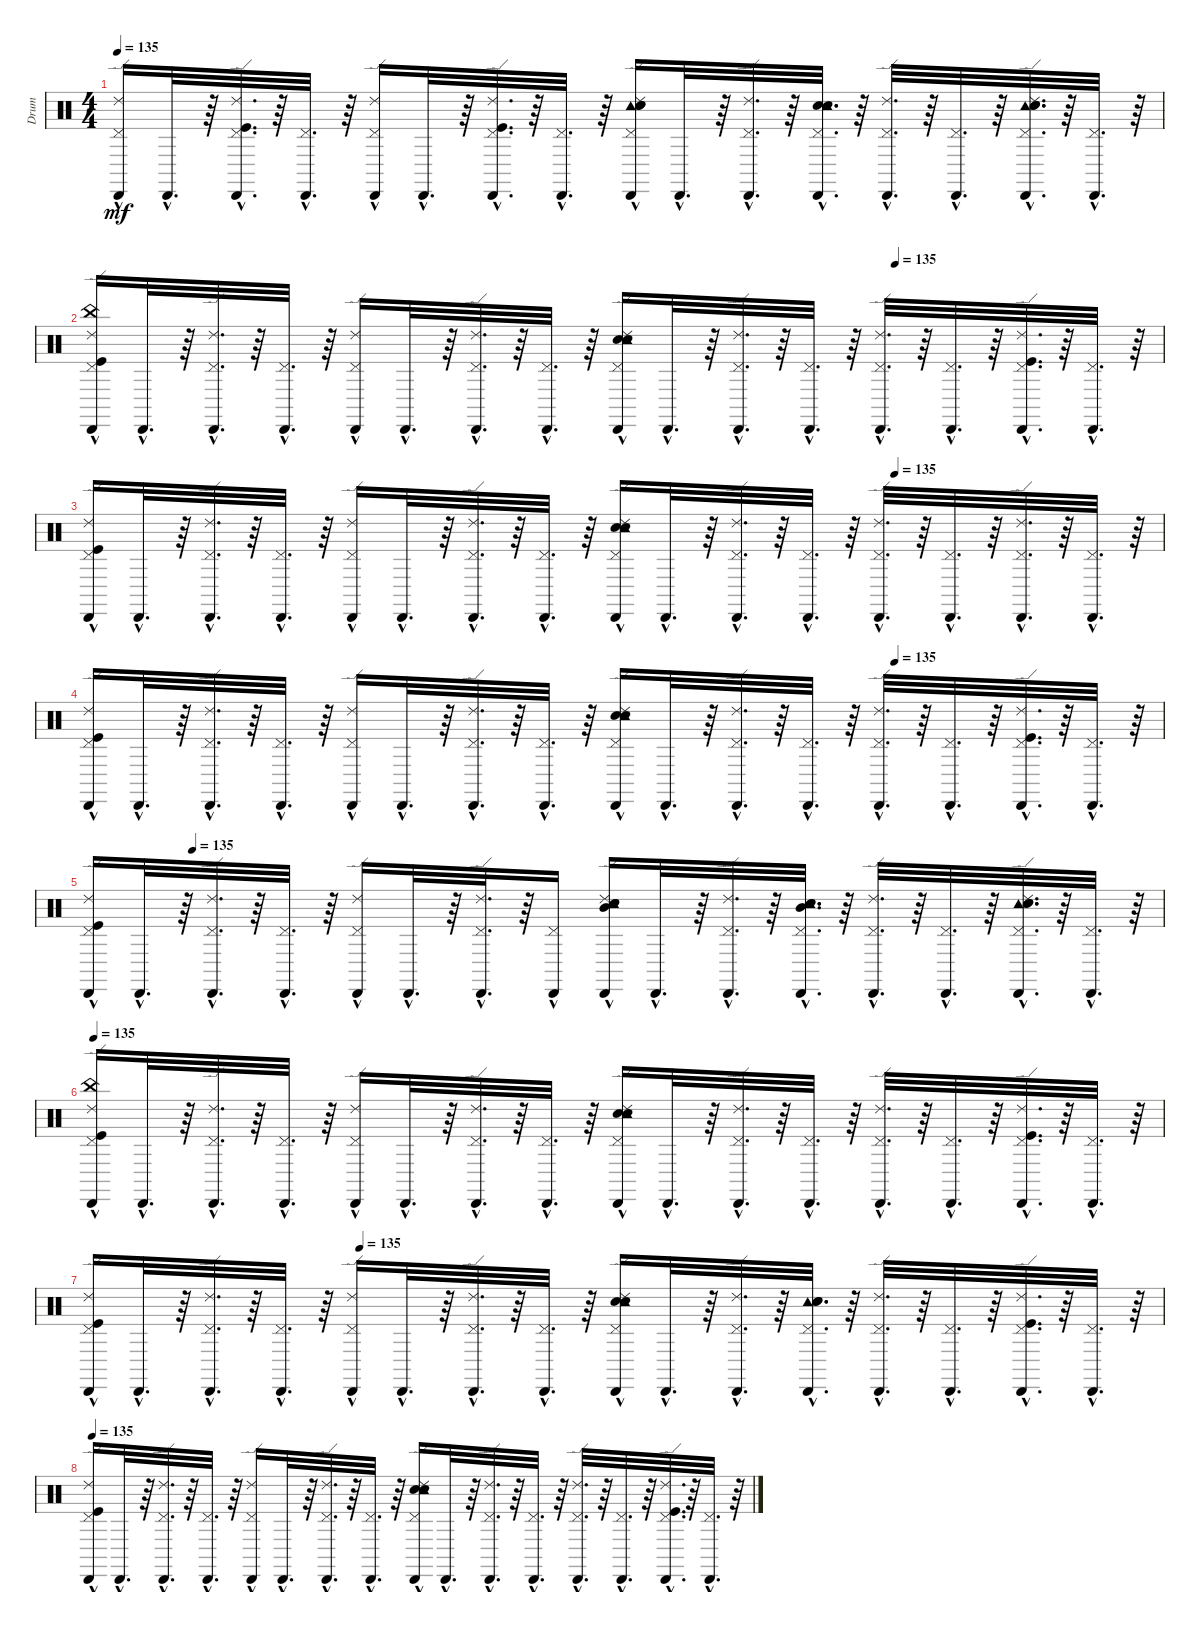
\track ("Drum" "Drum") {instrument percussion}
\staff {score}
\articulation defaults
\ts (4 4)
\tempo 135
\clef neutral
\ks c
("Cabasa (hit)"{hac} "Pedal Hi-Hat (hit)"{hac} "Ride (edge) 2"{hac}).16{dy mf} "Cabasa (hit)"{hac}.32{d} r.64 ("Cabasa (hit)"{hac} "Kick (hit)"{hac} "Ride (edge) 2"{hac} "Pedal Hi-Hat (hit)"{hac}).32{d} r.64 ("Cabasa (hit)"{hac} "Pedal Hi-Hat (hit)"{hac}).32{d} r.64 ("Cabasa (hit)"{hac} "Ride (edge) 2"{hac} "Pedal Hi-Hat (hit)"{hac}).16 "Cabasa (hit)"{hac}.32{d} r.64 ("Cabasa (hit)"{hac} "Kick (hit)"{hac} "Ride (edge) 2"{hac} "Pedal Hi-Hat (hit)"{hac}).32{d} r.64 ("Cabasa (hit)"{hac} "Pedal Hi-Hat (hit)"{hac}).32{d} r.64 ("Cabasa (hit)"{hac} "Tambourine (hit)"{hac} "Ride (edge) 2"{hac} "Snare (hit) 2"{hac} "Electric Snare (hit)"{hac} "Pedal Hi-Hat (hit)"{hac}).16 "Cabasa (hit)"{hac}.32{d} r.64 ("Cabasa (hit)"{hac} "Ride (edge) 2"{hac} "Pedal Hi-Hat (hit)"{hac}).32{d} r.64 ("Cabasa (hit)"{hac} "Pedal Hi-Hat (hit)"{hac} "Snare (hit) 2"{hac} "Electric Snare (hit)"{hac} "Tambourine (hit)"{hac}).32{d} r.64 ("Cabasa (hit)"{hac} "Ride (edge) 2"{hac} "Pedal Hi-Hat (hit)"{hac}).32{d} r.64 ("Cabasa (hit)"{hac} "Pedal Hi-Hat (hit)"{hac}).32{d} r.64 ("Cabasa (hit)"{hac} "Ride (edge) 2"{hac} "Pedal Hi-Hat (hit)"{hac} "Tambourine (hit)"{hac} "Electric Snare (hit)"{hac} "Snare (hit) 2"{hac}).32{d} r.64 ("Cabasa (hit)"{hac} "Pedal Hi-Hat (hit)"{hac}).32{d} r.64 |
\tempo (135 0.75)
("Cabasa (hit)"{hac} "China (hit)"{hac} "Pedal Hi-Hat (hit)"{hac} "Kick (hit)"{hac} "Ride (edge) 2"{hac}).16 "Cabasa (hit)"{hac}.32{d} r.64 ("Cabasa (hit)"{hac} "Pedal Hi-Hat (hit)"{hac} "Ride (edge) 2"{hac}).32{d} r.64 ("Cabasa (hit)"{hac} "Pedal Hi-Hat (hit)"{hac}).32{d} r.64 ("Cabasa (hit)"{hac} "Pedal Hi-Hat (hit)"{hac} "Ride (edge) 2"{hac}).16 "Cabasa (hit)"{hac}.32{d} r.64 ("Cabasa (hit)"{hac} "Pedal Hi-Hat (hit)"{hac} "Ride (edge) 2"{hac}).32{d} r.64 ("Cabasa (hit)"{hac} "Pedal Hi-Hat (hit)"{hac}).32{d} r.64 ("Cabasa (hit)"{hac} "Snare (hit) 2"{hac} "Electric Snare (hit)"{hac} "Pedal Hi-Hat (hit)"{hac} "Ride (edge) 2"{hac} "Tambourine (hit)"{hac}).16 "Cabasa (hit)"{hac}.32{d} r.64 ("Cabasa (hit)"{hac} "Pedal Hi-Hat (hit)"{hac} "Ride (edge) 2"{hac}).32{d} r.64 ("Cabasa (hit)"{hac} "Pedal Hi-Hat (hit)"{hac}).32{d} r.64 ("Cabasa (hit)"{hac} "Pedal Hi-Hat (hit)"{hac} "Ride (edge) 2"{hac}).32{d} r.64 ("Cabasa (hit)"{hac} "Pedal Hi-Hat (hit)"{hac}).32{d} r.64 ("Cabasa (hit)"{hac} "Pedal Hi-Hat (hit)"{hac} "Kick (hit)"{hac} "Ride (edge) 2"{hac}).32{d} r.64 ("Cabasa (hit)"{hac} "Pedal Hi-Hat (hit)"{hac}).32{d} r.64 |
\tempo (135 0.75)
("Cabasa (hit)"{hac} "Pedal Hi-Hat (hit)"{hac} "Kick (hit)"{hac} "Ride (edge) 2"{hac}).16 "Cabasa (hit)"{hac}.32{d} r.64 ("Cabasa (hit)"{hac} "Pedal Hi-Hat (hit)"{hac} "Ride (edge) 2"{hac}).32{d} r.64 ("Cabasa (hit)"{hac} "Pedal Hi-Hat (hit)"{hac}).32{d} r.64 ("Cabasa (hit)"{hac} "Pedal Hi-Hat (hit)"{hac} "Ride (edge) 2"{hac}).16 "Cabasa (hit)"{hac}.32{d} r.64 ("Cabasa (hit)"{hac} "Pedal Hi-Hat (hit)"{hac} "Ride (edge) 2"{hac}).32{d} r.64 ("Cabasa (hit)"{hac} "Pedal Hi-Hat (hit)"{hac}).32{d} r.64 ("Cabasa (hit)"{hac} "Pedal Hi-Hat (hit)"{hac} "Snare (hit) 2"{hac} "Ride (edge) 2"{hac} "Tambourine (hit)"{hac} "Electric Snare (hit)"{hac}).16 "Cabasa (hit)"{hac}.32{d} r.64 ("Cabasa (hit)"{hac} "Pedal Hi-Hat (hit)"{hac} "Ride (edge) 2"{hac}).32{d} r.64 ("Cabasa (hit)"{hac} "Pedal Hi-Hat (hit)"{hac}).32{d} r.64 ("Cabasa (hit)"{hac} "Ride (edge) 2"{hac} "Pedal Hi-Hat (hit)"{hac}).32{d} r.64 ("Cabasa (hit)"{hac} "Pedal Hi-Hat (hit)"{hac}).32{d} r.64 ("Cabasa (hit)"{hac} "Pedal Hi-Hat (hit)"{hac} "Ride (edge) 2"{hac}).32{d} r.64 ("Cabasa (hit)"{hac} "Pedal Hi-Hat (hit)"{hac}).32{d} r.64 |
\tempo (135 0.75)
("Cabasa (hit)"{hac} "Pedal Hi-Hat (hit)"{hac} "Kick (hit)"{hac} "Ride (edge) 2"{hac}).16 "Cabasa (hit)"{hac}.32{d} r.64 ("Cabasa (hit)"{hac} "Pedal Hi-Hat (hit)"{hac} "Ride (edge) 2"{hac}).32{d} r.64 ("Cabasa (hit)"{hac} "Pedal Hi-Hat (hit)"{hac}).32{d} r.64 ("Cabasa (hit)"{hac} "Pedal Hi-Hat (hit)"{hac} "Ride (edge) 2"{hac}).16 "Cabasa (hit)"{hac}.32{d} r.64 ("Cabasa (hit)"{hac} "Pedal Hi-Hat (hit)"{hac} "Ride (edge) 2"{hac}).32{d} r.64 ("Cabasa (hit)"{hac} "Pedal Hi-Hat (hit)"{hac}).32{d} r.64 ("Cabasa (hit)"{hac} "Snare (hit) 2"{hac} "Electric Snare (hit)"{hac} "Pedal Hi-Hat (hit)"{hac} "Ride (edge) 2"{hac} "Tambourine (hit)"{hac}).16 "Cabasa (hit)"{hac}.32{d} r.64 ("Cabasa (hit)"{hac} "Pedal Hi-Hat (hit)"{hac} "Ride (edge) 2"{hac}).32{d} r.64 ("Cabasa (hit)"{hac} "Pedal Hi-Hat (hit)"{hac}).32{d} r.64 ("Cabasa (hit)"{hac} "Pedal Hi-Hat (hit)"{hac} "Ride (edge) 2"{hac}).32{d} r.64 ("Cabasa (hit)"{hac} "Pedal Hi-Hat (hit)"{hac}).32{d} r.64 ("Cabasa (hit)"{hac} "Pedal Hi-Hat (hit)"{hac} "Kick (hit)"{hac} "Ride (edge) 2"{hac}).32{d} r.64 ("Cabasa (hit)"{hac} "Pedal Hi-Hat (hit)"{hac}).32{d} r.64 |
\tempo (135 0.09375)
("Cabasa (hit)"{hac} "Pedal Hi-Hat (hit)"{hac} "Ride (edge) 2"{hac} "Kick (hit)"{hac}).16 "Cabasa (hit)"{hac}.32{d} r.64 ("Cabasa (hit)"{hac} "Ride (edge) 2"{hac} "Pedal Hi-Hat (hit)"{hac}).32{d} r.64 ("Cabasa (hit)"{hac} "Pedal Hi-Hat (hit)"{hac}).32{d} r.64 ("Cabasa (hit)"{hac} "Ride (edge) 2"{hac} "Pedal Hi-Hat (hit)"{hac}).16 "Cabasa (hit)"{hac}.32{d} r.64 ("Cabasa (hit)"{hac} "Ride (edge) 2"{hac} "Pedal Hi-Hat (hit)"{hac}).32{d} r.64 ("Cabasa (hit)"{hac} "Pedal Hi-Hat (hit)").16 ("Cabasa (hit)"{hac} "Mid Tom (hit)"{hac} "Tambourine (hit)"{hac} "Ride (edge) 2"{hac} "Snare (hit) 2"{hac} "Electric Snare (hit)"{hac}).16 "Cabasa (hit)"{hac}.32{d} r.64 ("Cabasa (hit)"{hac} "Ride (edge) 2"{hac} "Pedal Hi-Hat (hit)"{hac}).32{d} r.64 ("Cabasa (hit)"{hac} "Mid Tom (hit)"{hac} "Pedal Hi-Hat (hit)"{hac} "Snare (hit) 2"{hac} "Electric Snare (hit)"{hac} "Tambourine (hit)"{hac}).32{d} r.64 ("Cabasa (hit)"{hac} "Ride (edge) 2"{hac} "Pedal Hi-Hat (hit)"{hac}).32{d} r.64 ("Cabasa (hit)"{hac} "Pedal Hi-Hat (hit)"{hac}).32{d} r.64 ("Cabasa (hit)"{hac} "Ride (edge) 2"{hac} "Pedal Hi-Hat (hit)"{hac} "Tambourine (hit)"{hac} "Electric Snare (hit)"{hac} "Snare (hit) 2"{hac}).32{d} r.64 ("Cabasa (hit)"{hac} "Pedal Hi-Hat (hit)"{hac}).32{d} r.64 |
\tempo 135
("Cabasa (hit)"{hac} "Ride (edge) 2"{hac} "Kick (hit)"{hac} "Pedal Hi-Hat (hit)"{hac} "China (hit)"{hac}).16 "Cabasa (hit)"{hac}.32{d} r.64 ("Cabasa (hit)"{hac} "Ride (edge) 2"{hac} "Pedal Hi-Hat (hit)"{hac}).32{d} r.64 ("Cabasa (hit)"{hac} "Pedal Hi-Hat (hit)"{hac}).32{d} r.64 ("Cabasa (hit)"{hac} "Ride (edge) 2"{hac} "Pedal Hi-Hat (hit)"{hac}).16 "Cabasa (hit)"{hac}.32{d} r.64 ("Cabasa (hit)"{hac} "Ride (edge) 2"{hac} "Pedal Hi-Hat (hit)"{hac}).32{d} r.64 ("Cabasa (hit)"{hac} "Pedal Hi-Hat (hit)"{hac}).32{d} r.64 ("Cabasa (hit)"{hac} "Ride (edge) 2"{hac} "Pedal Hi-Hat (hit)"{hac} "Electric Snare (hit)"{hac} "Snare (hit) 2"{hac} "Tambourine (hit)"{hac}).16 "Cabasa (hit)"{hac}.32{d} r.64 ("Cabasa (hit)"{hac} "Ride (edge) 2"{hac} "Pedal Hi-Hat (hit)"{hac}).32{d} r.64 ("Cabasa (hit)"{hac} "Pedal Hi-Hat (hit)"{hac}).32{d} r.64 ("Cabasa (hit)"{hac} "Ride (edge) 2"{hac} "Pedal Hi-Hat (hit)"{hac}).32{d} r.64 ("Cabasa (hit)"{hac} "Pedal Hi-Hat (hit)"{hac}).32{d} r.64 ("Cabasa (hit)"{hac} "Ride (edge) 2"{hac} "Kick (hit)"{hac} "Pedal Hi-Hat (hit)"{hac}).32{d} r.64 ("Cabasa (hit)"{hac} "Pedal Hi-Hat (hit)"{hac}).32{d} r.64 |
\tempo (135 0.25)
("Cabasa (hit)"{hac} "Ride (edge) 2"{hac} "Kick (hit)"{hac} "Pedal Hi-Hat (hit)"{hac}).16 "Cabasa (hit)"{hac}.32{d} r.64 ("Cabasa (hit)"{hac} "Ride (edge) 2"{hac} "Pedal Hi-Hat (hit)"{hac}).32{d} r.64 ("Cabasa (hit)"{hac} "Pedal Hi-Hat (hit)"{hac}).32{d} r.64 ("Cabasa (hit)"{hac} "Ride (edge) 2"{hac} "Pedal Hi-Hat (hit)"{hac}).16 "Cabasa (hit)"{hac}.32{d} r.64 ("Cabasa (hit)"{hac} "Ride (edge) 2"{hac} "Pedal Hi-Hat (hit)"{hac}).32{d} r.64 ("Cabasa (hit)"{hac} "Pedal Hi-Hat (hit)"{hac}).32{d} r.64 ("Cabasa (hit)"{hac} "Electric Snare (hit)"{hac} "Tambourine (hit)"{hac} "Ride (edge) 2"{hac} "Snare (hit) 2"{hac} "Pedal Hi-Hat (hit)"{hac}).16 "Cabasa (hit)"{hac}.32{d} r.64 ("Cabasa (hit)"{hac} "Ride (edge) 2"{hac} "Pedal Hi-Hat (hit)"{hac}).32{d} r.64 ("Cabasa (hit)"{hac} "Tambourine (hit)"{hac} "Snare (hit) 2"{hac} "Electric Snare (hit)"{hac} "Pedal Hi-Hat (hit)"{hac}).32{d} r.64 ("Cabasa (hit)"{hac} "Pedal Hi-Hat (hit)"{hac} "Ride (edge) 2"{hac}).32{d} r.64 ("Cabasa (hit)"{hac} "Pedal Hi-Hat (hit)"{hac}).32{d} r.64 ("Cabasa (hit)"{hac} "Kick (hit)"{hac} "Ride (edge) 2"{hac} "Pedal Hi-Hat (hit)"{hac}).32{d} r.64 ("Cabasa (hit)"{hac} "Pedal Hi-Hat (hit)"{hac}).32{d} r.64 |
\tempo 135
("Cabasa (hit)"{hac} "Pedal Hi-Hat (hit)"{hac} "Kick (hit)"{hac} "Ride (edge) 2"{hac}).16 "Cabasa (hit)"{hac}.32{d} r.64 ("Cabasa (hit)"{hac} "Pedal Hi-Hat (hit)"{hac} "Ride (edge) 2"{hac}).32{d} r.64 ("Cabasa (hit)"{hac} "Pedal Hi-Hat (hit)"{hac}).32{d} r.64 ("Cabasa (hit)"{hac} "Pedal Hi-Hat (hit)"{hac} "Ride (edge) 2"{hac}).16 "Cabasa (hit)"{hac}.32{d} r.64 ("Cabasa (hit)"{hac} "Pedal Hi-Hat (hit)"{hac} "Ride (edge) 2"{hac}).32{d} r.64 ("Cabasa (hit)"{hac} "Pedal Hi-Hat (hit)"{hac}).32{d} r.64 ("Cabasa (hit)"{hac} "Snare (hit) 2"{hac} "Electric Snare (hit)"{hac} "Pedal Hi-Hat (hit)"{hac} "Ride (edge) 2"{hac} "Tambourine (hit)"{hac}).16 "Cabasa (hit)"{hac}.32{d} r.64 ("Cabasa (hit)"{hac} "Pedal Hi-Hat (hit)"{hac} "Ride (edge) 2"{hac}).32{d} r.64 ("Cabasa (hit)"{hac} "Pedal Hi-Hat (hit)"{hac}).32{d} r.64 ("Cabasa (hit)"{hac} "Pedal Hi-Hat (hit)"{hac} "Ride (edge) 2"{hac}).32{d} r.64 ("Cabasa (hit)"{hac} "Pedal Hi-Hat (hit)"{hac}).32{d} r.64 ("Cabasa (hit)"{hac} "Pedal Hi-Hat (hit)"{hac} "Kick (hit)"{hac} "Ride (edge) 2"{hac}).32{d} r.64 ("Cabasa (hit)"{hac} "Pedal Hi-Hat (hit)"{hac}).32{d} r.64
